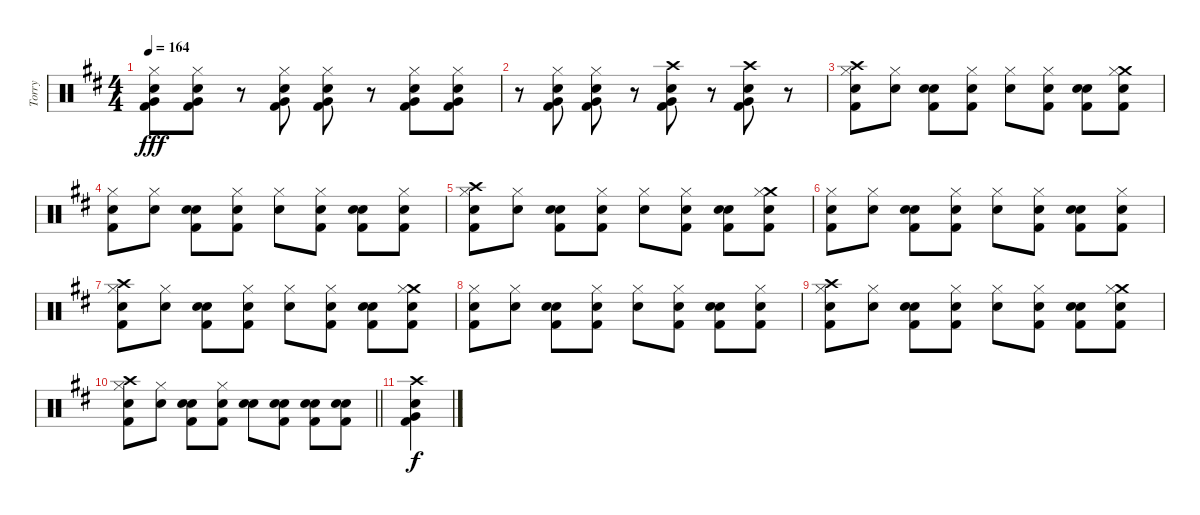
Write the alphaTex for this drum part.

\track ("Torry" "Torry") {instrument percussion}
\staff {score}
\articulation defaults
\ts (4 4)
\tempo 164
\clef neutral
\ks d
("Hi-Hat (closed)" "Electric Snare (hit)" "Very Low Tom (hit)" "Kick (hit) 2").8{dy fff} ("Hi-Hat (closed)" "Electric Snare (hit)" "Very Low Tom (hit)" "Kick (hit) 2").8 r.8 ("Hi-Hat (closed)" "Electric Snare (hit)" "Very Low Tom (hit)" "Kick (hit) 2").8 ("Hi-Hat (closed)" "Electric Snare (hit)" "Very Low Tom (hit)" "Kick (hit) 2").8 r.8 ("Hi-Hat (closed)" "Electric Snare (hit)" "Very Low Tom (hit)" "Kick (hit) 2").8 ("Hi-Hat (closed)" "Electric Snare (hit)" "Very Low Tom (hit)" "Kick (hit) 2").8 |
r.8 ("Hi-Hat (closed)" "Electric Snare (hit)" "Very Low Tom (hit)" "Kick (hit) 2").8 ("Hi-Hat (closed)" "Electric Snare (hit)" "Very Low Tom (hit)" "Kick (hit) 2").8 r.8 ("Crash high (hit)" "Electric Snare (hit)" "Very Low Tom (hit)" "Kick (hit) 2").8 r.8 ("Crash high (hit)" "Electric Snare (hit)" "Very Low Tom (hit)" "Kick (hit) 2").8 r.8 |
("Crash high (hit)" "Hi-Hat (closed)" "Snare (hit) 2" "Kick (hit) 2").8 ("Hi-Hat (closed)" "Snare (hit) 2").8 ("Electric Snare (hit)" "Snare (hit) 2" "Kick (hit) 2").8 ("Hi-Hat (closed)" "Snare (hit) 2" "Kick (hit) 2").8 ("Hi-Hat (closed)" "Snare (hit) 2").8 ("Hi-Hat (closed)" "Snare (hit) 2" "Kick (hit) 2").8 ("Electric Snare (hit)" "Snare (hit) 2" "Kick (hit) 2").8 ("Crash medium (hit)" "Hi-Hat (closed)" "Snare (hit) 2" "Kick (hit) 2").8 |
("Hi-Hat (closed)" "Snare (hit) 2" "Kick (hit) 2").8 ("Hi-Hat (closed)" "Snare (hit) 2").8 ("Electric Snare (hit)" "Snare (hit) 2" "Kick (hit) 2").8 ("Hi-Hat (closed)" "Snare (hit) 2" "Kick (hit) 2").8 ("Hi-Hat (closed)" "Snare (hit) 2").8 ("Hi-Hat (closed)" "Snare (hit) 2" "Kick (hit) 2").8 ("Electric Snare (hit)" "Snare (hit) 2" "Kick (hit) 2").8 ("Hi-Hat (closed)" "Snare (hit) 2" "Kick (hit) 2").8 |
("Crash high (hit)" "Hi-Hat (closed)" "Snare (hit) 2" "Kick (hit) 2").8 ("Hi-Hat (closed)" "Snare (hit) 2").8 ("Electric Snare (hit)" "Snare (hit) 2" "Kick (hit) 2").8 ("Hi-Hat (closed)" "Snare (hit) 2" "Kick (hit) 2").8 ("Hi-Hat (closed)" "Snare (hit) 2").8 ("Hi-Hat (closed)" "Snare (hit) 2" "Kick (hit) 2").8 ("Electric Snare (hit)" "Snare (hit) 2" "Kick (hit) 2").8 ("Crash medium (hit)" "Hi-Hat (closed)" "Snare (hit) 2" "Kick (hit) 2").8 |
("Hi-Hat (closed)" "Snare (hit) 2" "Kick (hit) 2").8 ("Hi-Hat (closed)" "Snare (hit) 2").8 ("Electric Snare (hit)" "Snare (hit) 2" "Kick (hit) 2").8 ("Hi-Hat (closed)" "Snare (hit) 2" "Kick (hit) 2").8 ("Hi-Hat (closed)" "Snare (hit) 2").8 ("Hi-Hat (closed)" "Snare (hit) 2" "Kick (hit) 2").8 ("Electric Snare (hit)" "Snare (hit) 2" "Kick (hit) 2").8 ("Hi-Hat (closed)" "Snare (hit) 2" "Kick (hit) 2").8 |
("Crash high (hit)" "Hi-Hat (closed)" "Snare (hit) 2" "Kick (hit) 2").8 ("Hi-Hat (closed)" "Snare (hit) 2").8 ("Electric Snare (hit)" "Snare (hit) 2" "Kick (hit) 2").8 ("Hi-Hat (closed)" "Snare (hit) 2" "Kick (hit) 2").8 ("Hi-Hat (closed)" "Snare (hit) 2").8 ("Hi-Hat (closed)" "Snare (hit) 2" "Kick (hit) 2").8 ("Electric Snare (hit)" "Snare (hit) 2" "Kick (hit) 2").8 ("Crash medium (hit)" "Hi-Hat (closed)" "Snare (hit) 2" "Kick (hit) 2").8 |
("Hi-Hat (closed)" "Snare (hit) 2" "Kick (hit) 2").8 ("Hi-Hat (closed)" "Snare (hit) 2").8 ("Electric Snare (hit)" "Snare (hit) 2" "Kick (hit) 2").8 ("Hi-Hat (closed)" "Snare (hit) 2" "Kick (hit) 2").8 ("Hi-Hat (closed)" "Snare (hit) 2").8 ("Hi-Hat (closed)" "Snare (hit) 2" "Kick (hit) 2").8 ("Electric Snare (hit)" "Snare (hit) 2" "Kick (hit) 2").8 ("Hi-Hat (closed)" "Snare (hit) 2" "Kick (hit) 2").8 |
("Crash high (hit)" "Hi-Hat (closed)" "Snare (hit) 2" "Kick (hit) 2").8 ("Hi-Hat (closed)" "Snare (hit) 2").8 ("Electric Snare (hit)" "Snare (hit) 2" "Kick (hit) 2").8 ("Hi-Hat (closed)" "Snare (hit) 2" "Kick (hit) 2").8 ("Hi-Hat (closed)" "Snare (hit) 2").8 ("Hi-Hat (closed)" "Snare (hit) 2" "Kick (hit) 2").8 ("Electric Snare (hit)" "Snare (hit) 2" "Kick (hit) 2").8 ("Crash medium (hit)" "Hi-Hat (closed)" "Snare (hit) 2" "Kick (hit) 2").8 |
\barLineRight lightlight
("Crash high (hit)" "Hi-Hat (closed)" "Snare (hit) 2" "Kick (hit) 2").8 ("Hi-Hat (closed)" "Snare (hit) 2").8 ("Electric Snare (hit)" "Snare (hit) 2" "Kick (hit) 2").8 ("Hi-Hat (closed)" "Snare (hit) 2" "Kick (hit) 2").8 ("Electric Snare (hit)" "Snare (hit) 2").8 ("Electric Snare (hit)" "Snare (hit) 2" "Kick (hit) 2").8 ("Electric Snare (hit)" "Snare (hit) 2" "Kick (hit) 2").8 ("Electric Snare (hit)" "Snare (hit) 2" "Kick (hit) 2").8 |
("Crash high (hit)" "Electric Snare (hit)" "Very Low Tom (hit)" "Kick (hit) 2").4{dy f}
